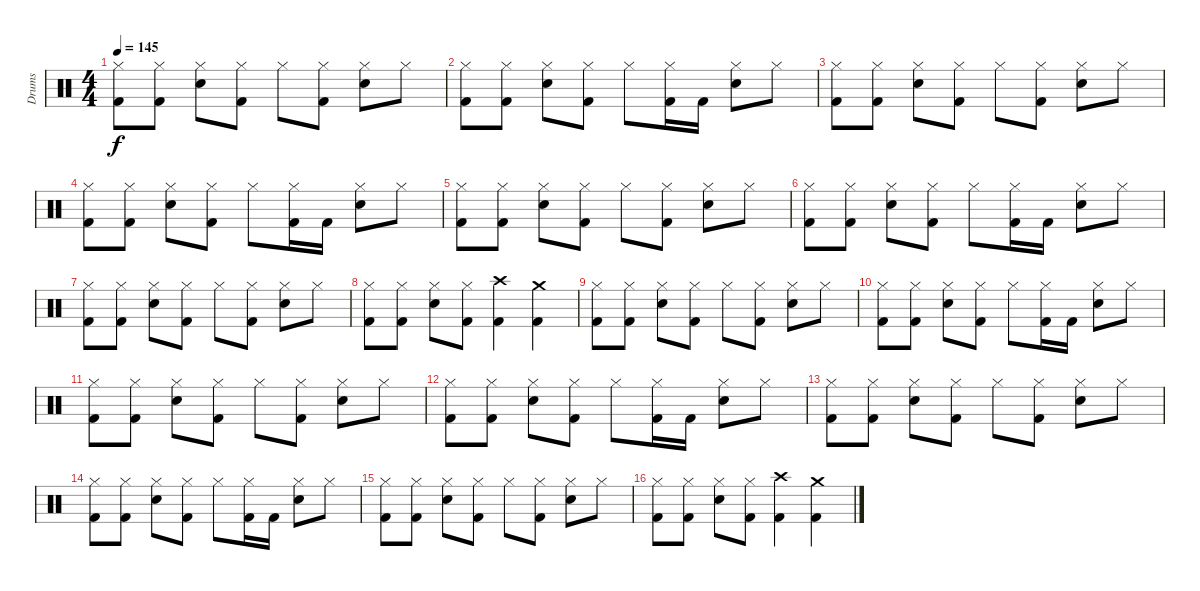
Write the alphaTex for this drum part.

\track ("Drums" "Drums") {instrument percussion}
\staff {score}
\articulation defaults
\ts (4 4)
\tempo 145
\clef neutral
\ks c
("Hi-Hat (closed)" "Kick (hit) 2").8{dy f} ("Hi-Hat (closed)" "Kick (hit) 2").8 ("Hi-Hat (closed)" "Snare (hit) 2").8 ("Hi-Hat (closed)" "Kick (hit) 2").8 "Hi-Hat (closed)".8 ("Hi-Hat (closed)" "Kick (hit) 2").8 ("Hi-Hat (closed)" "Snare (hit) 2").8 "Hi-Hat (closed)".8 |
("Hi-Hat (closed)" "Kick (hit) 2").8 ("Hi-Hat (closed)" "Kick (hit) 2").8 ("Hi-Hat (closed)" "Snare (hit) 2").8 ("Hi-Hat (closed)" "Kick (hit) 2").8 "Hi-Hat (closed)".8 ("Hi-Hat (closed)" "Kick (hit) 2").16 "Kick (hit) 2".16 ("Hi-Hat (closed)" "Snare (hit) 2").8 "Hi-Hat (closed)".8 |
("Hi-Hat (closed)" "Kick (hit) 2").8 ("Hi-Hat (closed)" "Kick (hit) 2").8 ("Hi-Hat (closed)" "Snare (hit) 2").8 ("Hi-Hat (closed)" "Kick (hit) 2").8 "Hi-Hat (closed)".8 ("Hi-Hat (closed)" "Kick (hit) 2").8 ("Hi-Hat (closed)" "Snare (hit) 2").8 "Hi-Hat (closed)".8 |
("Hi-Hat (closed)" "Kick (hit) 2").8 ("Hi-Hat (closed)" "Kick (hit) 2").8 ("Hi-Hat (closed)" "Snare (hit) 2").8 ("Hi-Hat (closed)" "Kick (hit) 2").8 "Hi-Hat (closed)".8 ("Hi-Hat (closed)" "Kick (hit) 2").16 "Kick (hit) 2".16 ("Hi-Hat (closed)" "Snare (hit) 2").8 "Hi-Hat (closed)".8 |
("Hi-Hat (closed)" "Kick (hit) 2").8 ("Hi-Hat (closed)" "Kick (hit) 2").8 ("Hi-Hat (closed)" "Snare (hit) 2").8 ("Hi-Hat (closed)" "Kick (hit) 2").8 "Hi-Hat (closed)".8 ("Hi-Hat (closed)" "Kick (hit) 2").8 ("Hi-Hat (closed)" "Snare (hit) 2").8 "Hi-Hat (closed)".8 |
("Hi-Hat (closed)" "Kick (hit) 2").8 ("Hi-Hat (closed)" "Kick (hit) 2").8 ("Hi-Hat (closed)" "Snare (hit) 2").8 ("Hi-Hat (closed)" "Kick (hit) 2").8 "Hi-Hat (closed)".8 ("Hi-Hat (closed)" "Kick (hit) 2").16 "Kick (hit) 2".16 ("Hi-Hat (closed)" "Snare (hit) 2").8 "Hi-Hat (closed)".8 |
("Hi-Hat (closed)" "Kick (hit) 2").8 ("Hi-Hat (closed)" "Kick (hit) 2").8 ("Hi-Hat (closed)" "Snare (hit) 2").8 ("Hi-Hat (closed)" "Kick (hit) 2").8 "Hi-Hat (closed)".8 ("Hi-Hat (closed)" "Kick (hit) 2").8 ("Hi-Hat (closed)" "Snare (hit) 2").8 "Hi-Hat (closed)".8 |
("Hi-Hat (closed)" "Kick (hit) 2").8 ("Hi-Hat (closed)" "Kick (hit) 2").8 ("Hi-Hat (closed)" "Snare (hit) 2").8 ("Hi-Hat (closed)" "Kick (hit) 2").8 ("Crash high (hit)" "Kick (hit) 2").4 ("Crash medium (hit)" "Kick (hit) 2").4 |
("Hi-Hat (closed)" "Kick (hit) 2").8 ("Hi-Hat (closed)" "Kick (hit) 2").8 ("Hi-Hat (closed)" "Snare (hit) 2").8 ("Hi-Hat (closed)" "Kick (hit) 2").8 "Hi-Hat (closed)".8 ("Hi-Hat (closed)" "Kick (hit) 2").8 ("Hi-Hat (closed)" "Snare (hit) 2").8 "Hi-Hat (closed)".8 |
("Hi-Hat (closed)" "Kick (hit) 2").8 ("Hi-Hat (closed)" "Kick (hit) 2").8 ("Hi-Hat (closed)" "Snare (hit) 2").8 ("Hi-Hat (closed)" "Kick (hit) 2").8 "Hi-Hat (closed)".8 ("Hi-Hat (closed)" "Kick (hit) 2").16 "Kick (hit) 2".16 ("Hi-Hat (closed)" "Snare (hit) 2").8 "Hi-Hat (closed)".8 |
("Hi-Hat (closed)" "Kick (hit) 2").8 ("Hi-Hat (closed)" "Kick (hit) 2").8 ("Hi-Hat (closed)" "Snare (hit) 2").8 ("Hi-Hat (closed)" "Kick (hit) 2").8 "Hi-Hat (closed)".8 ("Hi-Hat (closed)" "Kick (hit) 2").8 ("Hi-Hat (closed)" "Snare (hit) 2").8 "Hi-Hat (closed)".8 |
("Hi-Hat (closed)" "Kick (hit) 2").8 ("Hi-Hat (closed)" "Kick (hit) 2").8 ("Hi-Hat (closed)" "Snare (hit) 2").8 ("Hi-Hat (closed)" "Kick (hit) 2").8 "Hi-Hat (closed)".8 ("Hi-Hat (closed)" "Kick (hit) 2").16 "Kick (hit) 2".16 ("Hi-Hat (closed)" "Snare (hit) 2").8 "Hi-Hat (closed)".8 |
("Hi-Hat (closed)" "Kick (hit) 2").8 ("Hi-Hat (closed)" "Kick (hit) 2").8 ("Hi-Hat (closed)" "Snare (hit) 2").8 ("Hi-Hat (closed)" "Kick (hit) 2").8 "Hi-Hat (closed)".8 ("Hi-Hat (closed)" "Kick (hit) 2").8 ("Hi-Hat (closed)" "Snare (hit) 2").8 "Hi-Hat (closed)".8 |
("Hi-Hat (closed)" "Kick (hit) 2").8 ("Hi-Hat (closed)" "Kick (hit) 2").8 ("Hi-Hat (closed)" "Snare (hit) 2").8 ("Hi-Hat (closed)" "Kick (hit) 2").8 "Hi-Hat (closed)".8 ("Hi-Hat (closed)" "Kick (hit) 2").16 "Kick (hit) 2".16 ("Hi-Hat (closed)" "Snare (hit) 2").8 "Hi-Hat (closed)".8 |
("Hi-Hat (closed)" "Kick (hit) 2").8 ("Hi-Hat (closed)" "Kick (hit) 2").8 ("Hi-Hat (closed)" "Snare (hit) 2").8 ("Hi-Hat (closed)" "Kick (hit) 2").8 "Hi-Hat (closed)".8 ("Hi-Hat (closed)" "Kick (hit) 2").8 ("Hi-Hat (closed)" "Snare (hit) 2").8 "Hi-Hat (closed)".8 |
("Hi-Hat (closed)" "Kick (hit) 2").8 ("Hi-Hat (closed)" "Kick (hit) 2").8 ("Hi-Hat (closed)" "Snare (hit) 2").8 ("Hi-Hat (closed)" "Kick (hit) 2").8 ("Crash high (hit)" "Kick (hit) 2").4 ("Crash medium (hit)" "Kick (hit) 2").4
